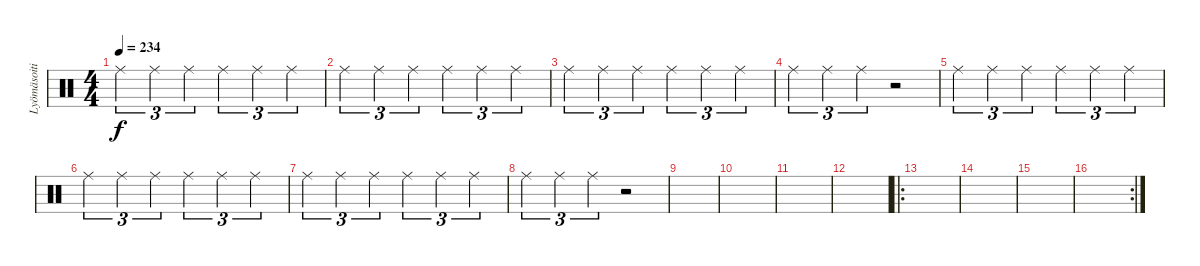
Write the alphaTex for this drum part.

\track ("Lyömäsoitin" "Lyömäsoiti") {instrument percussion}
\staff {score}
\articulation defaults
\ts (4 4)
\tempo 234
\clef neutral
\ks c "Ride (middle)".4{tu (3 2) dy f} "Ride (middle)".4{tu (3 2)} "Ride (middle)".4{tu (3 2)} "Ride (middle)".4{tu (3 2)} "Ride (middle)".4{tu (3 2)} "Ride (middle)".4{tu (3 2)}
|
"Ride (middle)".4{tu (3 2)} "Ride (middle)".4{tu (3 2)} "Ride (middle)".4{tu (3 2)} "Ride (middle)".4{tu (3 2)} "Ride (middle)".4{tu (3 2)} "Ride (middle)".4{tu (3 2)} |
"Ride (middle)".4{tu (3 2)} "Ride (middle)".4{tu (3 2)} "Ride (middle)".4{tu (3 2)} "Ride (middle)".4{tu (3 2)} "Ride (middle)".4{tu (3 2)} "Ride (middle)".4{tu (3 2)} |
"Ride (middle)".4{tu (3 2)} "Ride (middle)".4{tu (3 2)} "Ride (middle)".4{tu (3 2)} r.2 |
"Ride (middle)".4{tu (3 2)} "Ride (middle)".4{tu (3 2)} "Ride (middle)".4{tu (3 2)} "Ride (middle)".4{tu (3 2)} "Ride (middle)".4{tu (3 2)} "Ride (middle)".4{tu (3 2)} |
"Ride (middle)".4{tu (3 2)} "Ride (middle)".4{tu (3 2)} "Ride (middle)".4{tu (3 2)} "Ride (middle)".4{tu (3 2)} "Ride (middle)".4{tu (3 2)} "Ride (middle)".4{tu (3 2)} |
"Ride (middle)".4{tu (3 2)} "Ride (middle)".4{tu (3 2)} "Ride (middle)".4{tu (3 2)} "Ride (middle)".4{tu (3 2)} "Ride (middle)".4{tu (3 2)} "Ride (middle)".4{tu (3 2)} |
"Ride (middle)".4{tu (3 2)} "Ride (middle)".4{tu (3 2)} "Ride (middle)".4{tu (3 2)} r.2 |
|
|
|
|
\ro
|
|
|
\rc 2
